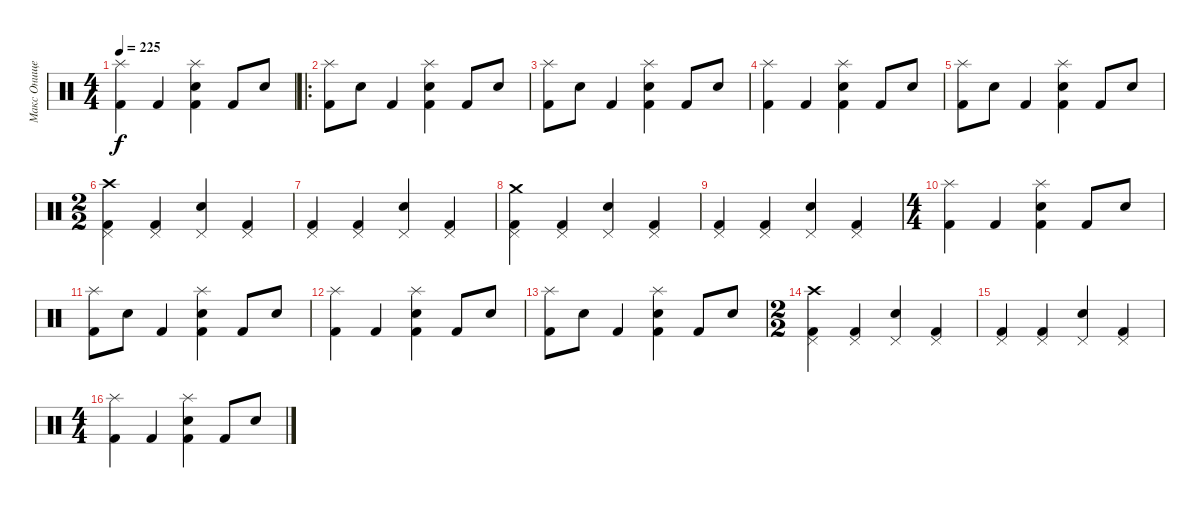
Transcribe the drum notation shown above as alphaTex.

\track ("Макс Онищенко" "Макс Онище") {instrument percussion}
\staff {score}
\articulation defaults
\ts (4 4)
\tempo 225
\clef neutral
\ks c
("Splash (hit)" "Kick (hit) 2").4{dy f} "Kick (hit) 2".4 ("Splash (hit)" "Kick (hit) 2" "Electric Snare (hit)").4 "Kick (hit) 2".8 "Electric Snare (hit)".8 |
\ro
("Splash (hit)" "Kick (hit) 2").8 "Electric Snare (hit)".8 "Kick (hit) 2".4 ("Splash (hit)" "Kick (hit) 2" "Electric Snare (hit)").4 "Kick (hit) 2".8 "Electric Snare (hit)".8 |
("Splash (hit)" "Kick (hit) 2").8 "Electric Snare (hit)".8 "Kick (hit) 2".4 ("Splash (hit)" "Kick (hit) 2" "Electric Snare (hit)").4 "Kick (hit) 2".8 "Electric Snare (hit)".8 |
("Splash (hit)" "Kick (hit) 2").4 "Kick (hit) 2".4 ("Splash (hit)" "Kick (hit) 2" "Electric Snare (hit)").4 "Kick (hit) 2".8 "Electric Snare (hit)".8 |
("Splash (hit)" "Kick (hit) 2").8 "Electric Snare (hit)".8 "Kick (hit) 2".4 ("Splash (hit)" "Kick (hit) 2" "Electric Snare (hit)").4 "Kick (hit) 2".8 "Electric Snare (hit)".8 |
\ts (2 2)
("Pedal Hi-Hat (hit)" "Kick (hit) 2" "Crash high (hit)").4 ("Pedal Hi-Hat (hit)" "Kick (hit) 2").4 ("Pedal Hi-Hat (hit)" "Snare (hit) 2").4 ("Pedal Hi-Hat (hit)" "Kick (hit) 2").4 |
("Pedal Hi-Hat (hit)" "Kick (hit) 2").4 ("Pedal Hi-Hat (hit)" "Kick (hit) 2").4 ("Pedal Hi-Hat (hit)" "Snare (hit) 2").4 ("Pedal Hi-Hat (hit)" "Kick (hit) 2").4 |
("Pedal Hi-Hat (hit)" "Kick (hit) 2" "Crash medium (hit)").4 ("Pedal Hi-Hat (hit)" "Kick (hit) 2").4 ("Pedal Hi-Hat (hit)" "Snare (hit) 2").4 ("Pedal Hi-Hat (hit)" "Kick (hit) 2").4 |
("Pedal Hi-Hat (hit)" "Kick (hit) 2").4 ("Pedal Hi-Hat (hit)" "Kick (hit) 2").4 ("Pedal Hi-Hat (hit)" "Snare (hit) 2").4 ("Pedal Hi-Hat (hit)" "Kick (hit) 2").4 |
\ts (4 4)
("Splash (hit)" "Kick (hit) 2").4 "Kick (hit) 2".4 ("Splash (hit)" "Kick (hit) 2" "Electric Snare (hit)").4 "Kick (hit) 2".8 "Electric Snare (hit)".8 |
("Splash (hit)" "Kick (hit) 2").8 "Electric Snare (hit)".8 "Kick (hit) 2".4 ("Splash (hit)" "Kick (hit) 2" "Electric Snare (hit)").4 "Kick (hit) 2".8 "Electric Snare (hit)".8 |
("Splash (hit)" "Kick (hit) 2").4 "Kick (hit) 2".4 ("Splash (hit)" "Kick (hit) 2" "Electric Snare (hit)").4 "Kick (hit) 2".8 "Electric Snare (hit)".8 |
("Splash (hit)" "Kick (hit) 2").8 "Electric Snare (hit)".8 "Kick (hit) 2".4 ("Splash (hit)" "Kick (hit) 2" "Electric Snare (hit)").4 "Kick (hit) 2".8 "Electric Snare (hit)".8 |
\ts (2 2)
("Pedal Hi-Hat (hit)" "Kick (hit) 2" "Crash high (hit)").4 ("Pedal Hi-Hat (hit)" "Kick (hit) 2").4 ("Pedal Hi-Hat (hit)" "Snare (hit) 2").4 ("Pedal Hi-Hat (hit)" "Kick (hit) 2").4 |
("Pedal Hi-Hat (hit)" "Kick (hit) 2").4 ("Pedal Hi-Hat (hit)" "Kick (hit) 2").4 ("Pedal Hi-Hat (hit)" "Snare (hit) 2").4 ("Pedal Hi-Hat (hit)" "Kick (hit) 2").4 |
\ts (4 4)
("Splash (hit)" "Kick (hit) 2").4 "Kick (hit) 2".4 ("Splash (hit)" "Kick (hit) 2" "Electric Snare (hit)").4 "Kick (hit) 2".8 "Electric Snare (hit)".8
